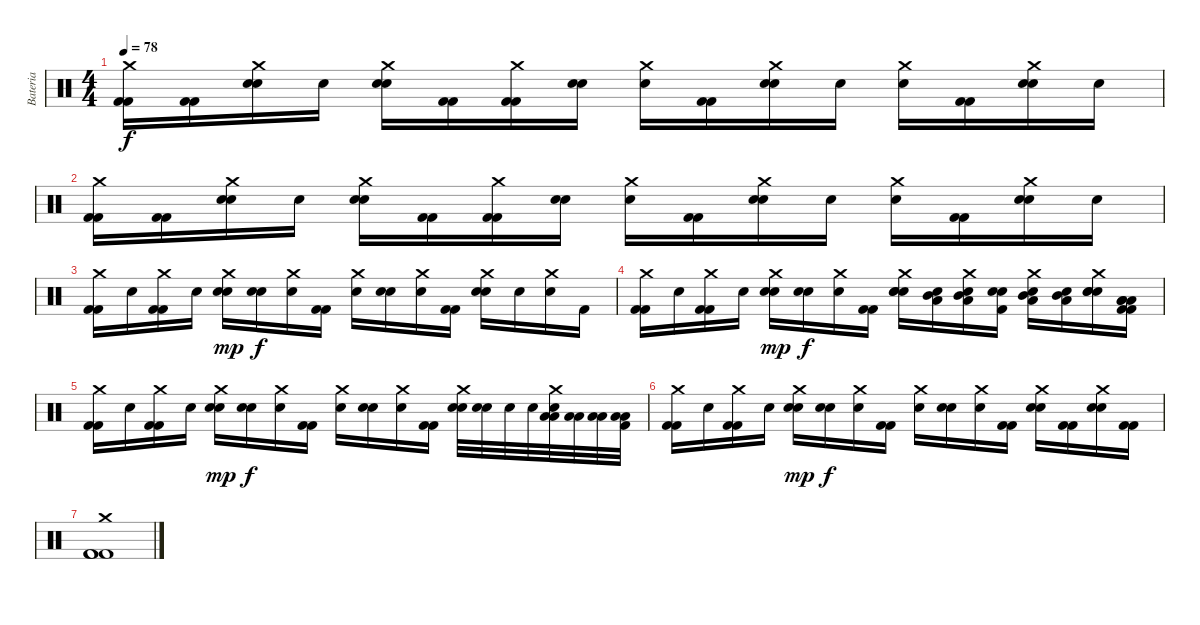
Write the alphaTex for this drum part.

\track ("Bateria" "Bateria") {instrument percussion}
\staff {score}
\articulation defaults
\ts (4 4)
\tempo 78
\clef neutral
\ks c
("Crash medium (hit)" "Kick (hit) 2" "Kick (hit) 2").16{dy f} ("Kick (hit) 2" "Kick (hit) 2").16 ("Crash medium (hit)" "Snare (hit) 2" "Snare (hit)"{x}).16 "Snare (hit)"{x}.16 ("Crash medium (hit)" "Snare (hit) 2" "Snare (hit)"{x}).16 ("Kick (hit) 2" "Kick (hit) 2").16 ("Crash medium (hit)" "Kick (hit) 2" "Kick (hit) 2").16 ("Snare (hit) 2" "Snare (hit)"{x}).16 ("Crash medium (hit)" "Snare (hit)"{x}).16 ("Kick (hit) 2" "Kick (hit) 2").16 ("Crash medium (hit)" "Snare (hit) 2" "Snare (hit)"{x}).16 "Snare (hit)"{x}.16 ("Crash medium (hit)" "Snare (hit)"{x}).16 ("Kick (hit) 2" "Kick (hit) 2").16 ("Crash medium (hit)" "Snare (hit) 2" "Snare (hit)"{x}).16 "Snare (hit)"{x}.16 |
("Crash medium (hit)" "Kick (hit) 2" "Kick (hit) 2").16 ("Kick (hit) 2" "Kick (hit) 2").16 ("Crash medium (hit)" "Snare (hit) 2" "Snare (hit)"{x}).16 "Snare (hit)"{x}.16 ("Crash medium (hit)" "Snare (hit) 2" "Snare (hit)"{x}).16 ("Kick (hit) 2" "Kick (hit) 2").16 ("Crash medium (hit)" "Kick (hit) 2" "Kick (hit) 2").16 ("Snare (hit) 2" "Snare (hit)"{x}).16 ("Crash medium (hit)" "Snare (hit)"{x}).16 ("Kick (hit) 2" "Kick (hit) 2").16 ("Crash medium (hit)" "Snare (hit) 2" "Snare (hit)"{x}).16 "Snare (hit)"{x}.16 ("Crash medium (hit)" "Snare (hit)"{x}).16 ("Kick (hit) 2" "Kick (hit) 2").16 ("Crash medium (hit)" "Snare (hit) 2" "Snare (hit)"{x}).16 "Snare (hit)"{x}.16 |
("Crash medium (hit)" "Kick (hit) 2" "Kick (hit) 2").16 "Snare (hit)"{x}.16 ("Crash medium (hit)" "Kick (hit) 2" "Kick (hit) 2").16 "Snare (hit)"{x}.16 ("Crash medium (hit)" "Snare (hit) 2" "Snare (hit)"{x}).16{dy mp} ("Snare (hit) 2" "Snare (hit)"{x}).16{dy f} ("Crash medium (hit)" "Snare (hit)"{x}).16 ("Kick (hit) 2" "Kick (hit) 2").16 ("Crash medium (hit)" "Snare (hit)"{x}).16 ("Snare (hit) 2" "Snare (hit)"{x}).16 ("Crash medium (hit)" "Snare (hit)"{x}).16 ("Kick (hit) 2" "Kick (hit) 2").16 ("Crash medium (hit)" "Snare (hit) 2" "Snare (hit)"{x}).16 "Snare (hit)"{x}.16 ("Crash medium (hit)" "Snare (hit)"{x}).16 "Kick (hit) 2".16 |
("Crash medium (hit)" "Kick (hit) 2" "Kick (hit) 2").16 "Snare (hit)"{x}.16 ("Crash medium (hit)" "Kick (hit) 2" "Kick (hit) 2").16 "Snare (hit)"{x}.16 ("Crash medium (hit)" "Snare (hit) 2" "Snare (hit)"{x}).16{dy mp} ("Snare (hit) 2" "Snare (hit)"{x}).16{dy f} ("Crash medium (hit)" "Snare (hit)"{x}).16 ("Kick (hit) 2" "Kick (hit) 2").16 ("Crash medium (hit)" "Snare (hit) 2" "Snare (hit) 2" "Snare (hit)"{x}).16 ("Low Tom (hit)" "Mid Tom (hit)" "Snare (hit)"{x}).16 ("Crash medium (hit)" "Low Tom (hit)" "Mid Tom (hit)" "Snare (hit)"{x}).16 ("Snare (hit) 2" "Snare (hit) 2" "Kick (hit) 2").16 ("Crash medium (hit)" "Low Tom (hit)" "Mid Tom (hit)" "Snare (hit)"{x}).16 ("Low Tom (hit)" "Mid Tom (hit)" "Snare (hit)"{x}).16 ("Crash medium (hit)" "Snare (hit) 2" "Snare (hit) 2" "Snare (hit)"{x}).16 ("Kick (hit) 2" "Low Tom (hit)" "Low Tom (hit)" "Low Tom (hit)" "Kick (hit) 2").16 |
("Crash medium (hit)" "Kick (hit) 2" "Kick (hit) 2").16 "Snare (hit)"{x}.16 ("Crash medium (hit)" "Kick (hit) 2" "Kick (hit) 2").16 "Snare (hit)"{x}.16 ("Crash medium (hit)" "Snare (hit) 2" "Snare (hit)"{x}).16{dy mp} ("Snare (hit) 2" "Snare (hit)"{x}).16{dy f} ("Crash medium (hit)" "Snare (hit)"{x}).16 ("Kick (hit) 2" "Kick (hit) 2").16 ("Crash medium (hit)" "Snare (hit)"{x}).16 ("Snare (hit) 2" "Snare (hit)"{x}).16 ("Crash medium (hit)" "Snare (hit)"{x}).16 ("Kick (hit) 2" "Kick (hit) 2").16 ("Crash medium (hit)" "Snare (hit) 2" "Snare (hit)"{x}).32 ("Snare (hit) 2" "Snare (hit)"{x}).32 "Snare (hit) 2".32 "Snare (hit) 2".32 ("Crash medium (hit)" "Low Tom (hit)" "Low Tom (hit)" "Snare (hit)"{x}).32 ("Low Tom (hit)" "Low Tom (hit)").32 ("Low Tom (hit)" "Low Tom (hit)").32 ("Low Tom (hit)" "Low Tom (hit)" "Kick (hit) 2").32 |
("Crash medium (hit)" "Kick (hit) 2" "Kick (hit) 2").16 "Snare (hit)"{x}.16 ("Crash medium (hit)" "Kick (hit) 2" "Kick (hit) 2").16 "Snare (hit)"{x}.16 ("Crash medium (hit)" "Snare (hit) 2" "Snare (hit)"{x}).16{dy mp} ("Snare (hit) 2" "Snare (hit)"{x}).16{dy f} ("Crash medium (hit)" "Snare (hit)"{x}).16 ("Kick (hit) 2" "Kick (hit) 2").16 ("Crash medium (hit)" "Snare (hit)"{x}).16 ("Snare (hit) 2" "Snare (hit)"{x}).16 ("Crash medium (hit)" "Snare (hit)"{x}).16 ("Kick (hit) 2" "Kick (hit) 2").16 ("Crash medium (hit)" "Snare (hit) 2" "Snare (hit)"{x}).16 ("Kick (hit) 2" "Kick (hit) 2").16 ("Crash medium (hit)" "Snare (hit) 2" "Snare (hit)"{x}).16 ("Kick (hit) 2" "Kick (hit) 2").16 |
("Crash medium (hit)" "Kick (hit) 2" "Kick (hit) 2" "Kick (hit) 2").1
